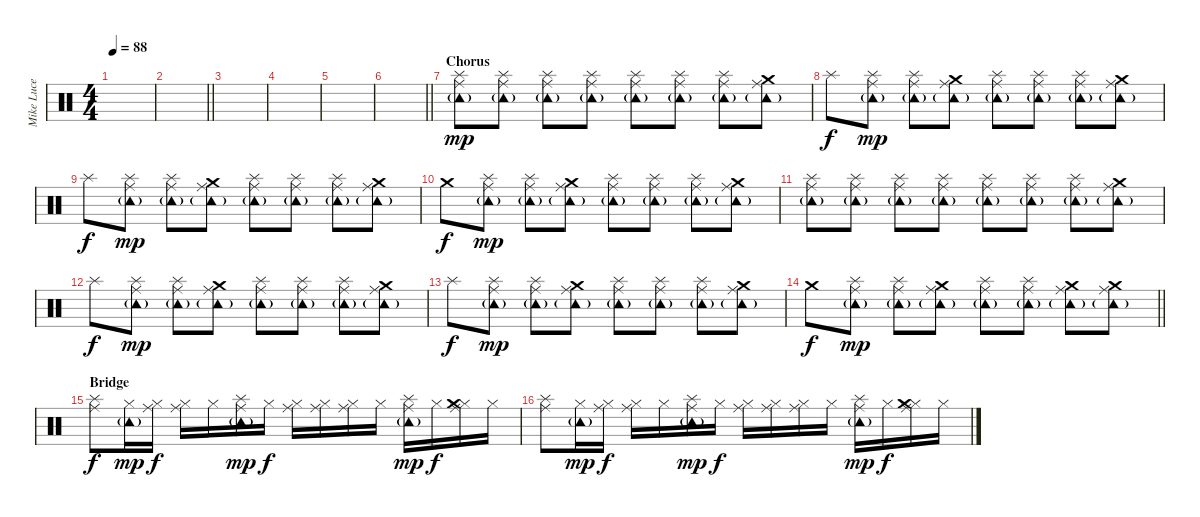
\track ("Mike Luce (Drums)" "Mike Luce ") {instrument percussion}
\staff {score}
\articulation defaults
\ts (4 4)
\tempo 88
\clef neutral
\ks c
|
\barLineRight lightlight
|
|
|
|
\barLineRight lightlight
|
\section ("" "Chorus")
("Splash (hit)" "Tambourine (hit)"{g} "Ride (middle)").8{dy mp} ("Splash (hit)" "Tambourine (hit)"{g} "Ride (middle)").8 ("Splash (hit)" "Tambourine (hit)"{g} "Ride (middle)").8 ("Splash (hit)" "Tambourine (hit)"{g} "Ride (middle)").8 ("Splash (hit)" "Tambourine (hit)"{g} "Ride (middle)").8 ("Splash (hit)" "Tambourine (hit)"{g} "Ride (middle)").8 ("Splash (hit)" "Tambourine (hit)"{g} "Ride (middle)").8 ("Crash medium (hit)" "Tambourine (hit)"{g} "Ride (middle)").8 |
"Splash (hit)".8{dy f} ("Splash (hit)" "Tambourine (hit)"{g} "Ride (middle)").8{dy mp} ("Splash (hit)" "Tambourine (hit)"{g} "Ride (middle)").8 ("Crash medium (hit)" "Tambourine (hit)"{g} "Ride (middle)").8 ("Splash (hit)" "Tambourine (hit)"{g} "Ride (middle)").8 ("Splash (hit)" "Tambourine (hit)"{g} "Ride (middle)").8 ("Splash (hit)" "Tambourine (hit)"{g} "Ride (middle)").8 ("Crash medium (hit)" "Tambourine (hit)"{g} "Ride (middle)").8 |
"Splash (hit)".8{dy f} ("Splash (hit)" "Tambourine (hit)"{g} "Ride (middle)").8{dy mp} ("Splash (hit)" "Tambourine (hit)"{g} "Ride (middle)").8 ("Crash medium (hit)" "Tambourine (hit)"{g} "Ride (middle)").8 ("Splash (hit)" "Tambourine (hit)"{g} "Ride (middle)").8 ("Splash (hit)" "Tambourine (hit)"{g} "Ride (middle)").8 ("Splash (hit)" "Tambourine (hit)"{g} "Ride (middle)").8 ("Crash medium (hit)" "Tambourine (hit)"{g} "Ride (middle)").8 |
"Crash medium (hit)".8{dy f} ("Splash (hit)" "Tambourine (hit)"{g} "Ride (middle)").8{dy mp} ("Splash (hit)" "Tambourine (hit)"{g} "Ride (middle)").8 ("Crash medium (hit)" "Tambourine (hit)"{g} "Ride (middle)").8 ("Splash (hit)" "Tambourine (hit)"{g} "Ride (middle)").8 ("Splash (hit)" "Tambourine (hit)"{g} "Ride (middle)").8 ("Splash (hit)" "Tambourine (hit)"{g} "Ride (middle)").8 ("Crash medium (hit)" "Tambourine (hit)"{g} "Ride (middle)").8 |
("Splash (hit)" "Tambourine (hit)"{g} "Ride (middle)").8 ("Splash (hit)" "Tambourine (hit)"{g} "Ride (middle)").8 ("Splash (hit)" "Tambourine (hit)"{g} "Ride (middle)").8 ("Splash (hit)" "Tambourine (hit)"{g} "Ride (middle)").8 ("Splash (hit)" "Tambourine (hit)"{g} "Ride (middle)").8 ("Splash (hit)" "Tambourine (hit)"{g} "Ride (middle)").8 ("Splash (hit)" "Tambourine (hit)"{g} "Ride (middle)").8 ("Crash medium (hit)" "Tambourine (hit)"{g} "Ride (middle)").8 |
"Splash (hit)".8{dy f} ("Splash (hit)" "Tambourine (hit)"{g} "Ride (middle)").8{dy mp} ("Splash (hit)" "Tambourine (hit)"{g} "Ride (middle)").8 ("Crash medium (hit)" "Tambourine (hit)"{g} "Ride (middle)").8 ("Splash (hit)" "Tambourine (hit)"{g} "Ride (middle)").8 ("Splash (hit)" "Tambourine (hit)"{g} "Ride (middle)").8 ("Splash (hit)" "Tambourine (hit)"{g} "Ride (middle)").8 ("Crash medium (hit)" "Tambourine (hit)"{g} "Ride (middle)").8 |
"Splash (hit)".8{dy f} ("Splash (hit)" "Tambourine (hit)"{g} "Ride (middle)").8{dy mp} ("Splash (hit)" "Tambourine (hit)"{g} "Ride (middle)").8 ("Crash medium (hit)" "Tambourine (hit)"{g} "Ride (middle)").8 ("Splash (hit)" "Tambourine (hit)"{g} "Ride (middle)").8 ("Splash (hit)" "Tambourine (hit)"{g} "Ride (middle)").8 ("Splash (hit)" "Tambourine (hit)"{g} "Ride (middle)").8 ("Crash medium (hit)" "Tambourine (hit)"{g} "Ride (middle)").8 |
\barLineRight lightlight "Crash medium (hit)".8{dy f}
("Splash (hit)" "Tambourine (hit)"{g} "Ride (middle)").8{dy mp} ("Splash (hit)" "Tambourine (hit)"{g} "Ride (middle)").8 ("Crash medium (hit)" "Tambourine (hit)"{g} "Ride (middle)").8 ("Splash (hit)" "Tambourine (hit)"{g} "Ride (middle)").8 ("Splash (hit)" "Tambourine (hit)"{g} "Ride (middle)").8 ("Crash medium (hit)" "Tambourine (hit)"{g} "Ride (middle)").8 ("Crash medium (hit)" "Tambourine (hit)"{g} "Ride (middle)").8 |
\section ("" "Bridge")
("Splash (hit)" "Ride (middle)").8{dy f} ("Hi-Hat (closed)" "Tambourine (hit)"{g}).16{dy mp} ("Hi-Hat (closed)" "Ride (middle)").16{dy f} ("Hi-Hat (closed)" "Ride (middle)").16 "Hi-Hat (closed)".16 ("Splash (hit)" "Tambourine (hit)"{g} "Ride (middle)").16{dy mp} "Hi-Hat (closed)".16{dy f} ("Hi-Hat (closed)" "Ride (middle)").16 ("Hi-Hat (closed)" "Ride (middle)").16 ("Hi-Hat (closed)" "Ride (middle)").16 "Hi-Hat (closed)".16 ("Splash (hit)" "Tambourine (hit)"{g} "Ride (middle)").16{dy mp} "Hi-Hat (closed)".16{dy f} ("Hi-Hat (closed)" "Crash medium (hit)" "Ride (middle)").16 "Hi-Hat (closed)".16 |
("Splash (hit)" "Ride (middle)").8 ("Hi-Hat (closed)" "Tambourine (hit)"{g}).16{dy mp} ("Hi-Hat (closed)" "Ride (middle)").16{dy f} ("Hi-Hat (closed)" "Ride (middle)").16 "Hi-Hat (closed)".16 ("Splash (hit)" "Tambourine (hit)"{g} "Ride (middle)").16{dy mp} "Hi-Hat (closed)".16{dy f} ("Hi-Hat (closed)" "Ride (middle)").16 ("Hi-Hat (closed)" "Ride (middle)").16 ("Hi-Hat (closed)" "Ride (middle)").16 "Hi-Hat (closed)".16 ("Splash (hit)" "Tambourine (hit)"{g} "Ride (middle)").16{dy mp} "Hi-Hat (closed)".16{dy f} ("Hi-Hat (closed)" "Crash medium (hit)" "Ride (middle)").16 "Hi-Hat (closed)".16
